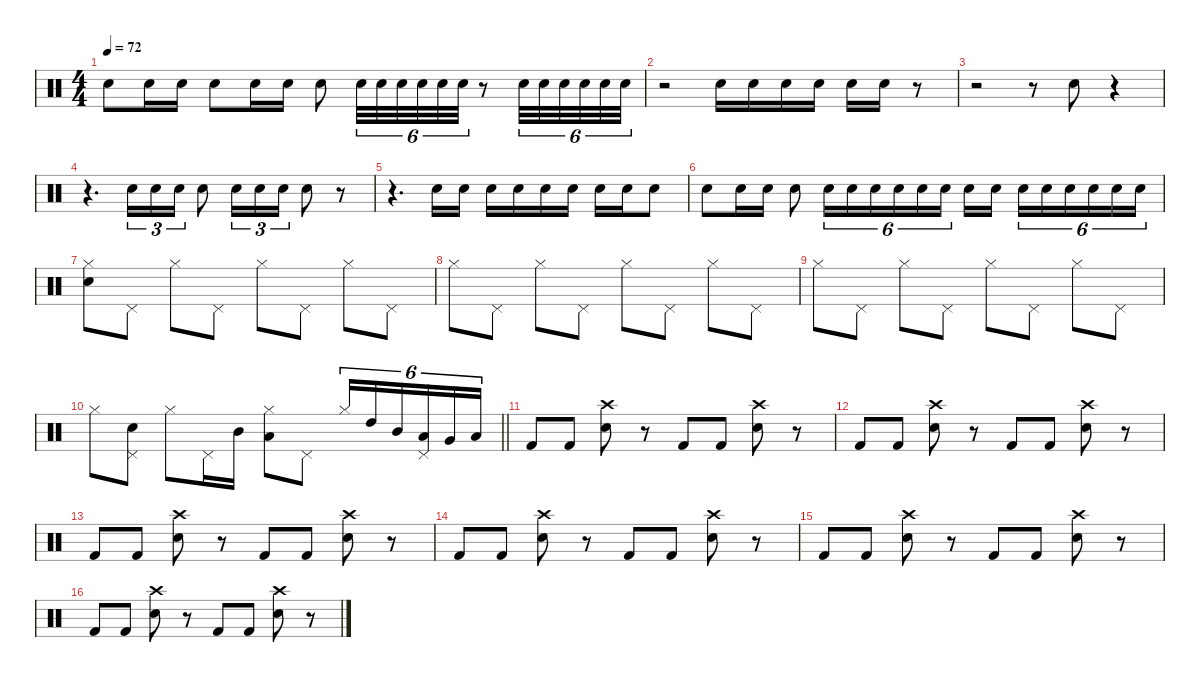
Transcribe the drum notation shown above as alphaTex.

\defaultSystemsLayout 4
\hideDynamics
\bracketExtendMode nobrackets
\singleTrackTrackNamePolicy hidden
\multiTrackTrackNamePolicy hidden
\otherSystemsTrackNameOrientation horizontal
\track ("Drums" "drm.") {instrument percussion}
\staff {score}
\articulation defaults
\ts (4 4)
\tempo 72
\clef neutral
\ks c "Snare (hit) 2".8{dy mp beam Down} "Snare (hit) 2".16{beam Down} "Snare (hit) 2".16{dy pp beam Down} "Snare (hit) 2".8{beam Down} "Snare (hit) 2".16{beam Down} "Snare (hit) 2".16{beam Down} "Snare (hit) 2".8{beam Down} "Snare (hit) 2".32{tu (6 4) dy p beam Down} "Snare (hit) 2".32{tu (6 4) beam Down} "Snare (hit) 2".32{tu (6 4) beam Down} "Snare (hit) 2".32{tu (6 4) beam Down} "Snare (hit) 2".32{tu (6 4) dy mp beam Down} "Snare (hit) 2".32{tu (6 4) beam Down}
r.8{beam Down} "Snare (hit) 2".32{tu (6 4) beam Down} "Snare (hit) 2".32{tu (6 4) beam Down} "Snare (hit) 2".32{tu (6 4) beam Down} "Snare (hit) 2".32{tu (6 4) beam Down} "Snare (hit) 2".32{tu (6 4) dy mf beam Down} "Snare (hit) 2".32{tu (6 4) beam Down} |
r.2{beam Down} "Snare (hit) 2".16{dy mp beam Down} "Snare (hit) 2".16{dy mf beam Down} "Snare (hit) 2".16{beam Down} "Snare (hit) 2".16{beam Down} "Snare (hit) 2".16{beam Down} "Snare (hit) 2".16{dy f beam Down} r.8{beam Down} |
r.2{beam Down} r.8{beam Down} "Snare (hit) 2".8{dy mf beam Down} r.4{beam Down} |
r.4{d beam Down} "Snare (hit) 2".16{tu (3 2) dy mp beam Down} "Snare (hit) 2".16{tu (3 2) beam Down} "Snare (hit) 2".16{tu (3 2) beam Down} "Snare (hit) 2".8{beam Down} "Snare (hit) 2".16{tu (3 2) dy mf beam Down} "Snare (hit) 2".16{tu (3 2) beam Down} "Snare (hit) 2".16{tu (3 2) beam Down} "Snare (hit) 2".8{beam Down} r.8{beam Down} |
r.4{d beam Down} "Snare (hit) 2".16{dy p beam Down} "Snare (hit) 2".16{beam Down} "Snare (hit) 2".16{dy mp beam Down} "Snare (hit) 2".16{beam Down} "Snare (hit) 2".16{beam Down} "Snare (hit) 2".16{dy mf beam Down} "Snare (hit) 2".16{beam Down} "Snare (hit) 2".16{beam Down} "Snare (hit) 2".8{beam Down} |
"Snare (hit) 2".8{dy f beam Down} "Snare (hit) 2".16{dy p beam Down} "Snare (hit) 2".16{dy pp beam Down} "Snare (hit) 2".8{dy p beam Down} "Snare (hit) 2".16{tu (6 4) dy ppp beam Down} "Snare (hit) 2".16{tu (6 4) dy pp beam Down} "Snare (hit) 2".16{tu (6 4) beam Down} "Snare (hit) 2".16{tu (6 4) beam Down} "Snare (hit) 2".16{tu (6 4) dy p beam Down} "Snare (hit) 2".16{tu (6 4) beam Down} "Snare (hit) 2".16{dy mp beam Down} "Snare (hit) 2".16{dy pp beam Down} "Snare (hit) 2".16{tu (6 4) dy p beam Down} "Snare (hit) 2".16{tu (6 4) beam Down} "Snare (hit) 2".16{tu (6 4) beam Down} "Snare (hit) 2".16{tu (6 4) dy mp beam Down} "Snare (hit) 2".16{tu (6 4) beam Down} "Snare (hit) 2".16{tu (6 4) dy mf beam Down} |
("Snare (hit) 2" "Hi-Hat (closed)").8{dy f beam Down} "Pedal Hi-Hat (hit)".8{dy mf beam Down} "Hi-Hat (closed)".8{dy mp beam Down} "Pedal Hi-Hat (hit)".8{dy mf beam Down} "Hi-Hat (closed)".8{dy mp beam Down} "Pedal Hi-Hat (hit)".8{dy mf beam Down} "Hi-Hat (closed)".8{dy mp beam Down} "Pedal Hi-Hat (hit)".8{beam Down} |
"Hi-Hat (closed)".8{dy f beam Down} "Pedal Hi-Hat (hit)".8{dy mf beam Down} "Hi-Hat (closed)".8{beam Down} "Pedal Hi-Hat (hit)".8{beam Down} "Hi-Hat (closed)".8{beam Down} "Pedal Hi-Hat (hit)".8{beam Down} "Hi-Hat (closed)".8{dy mp beam Down} "Pedal Hi-Hat (hit)".8{beam Down} |
"Hi-Hat (closed)".8{dy f beam Down} "Pedal Hi-Hat (hit)".8{dy mf beam Down} "Hi-Hat (closed)".8{dy mp beam Down} "Pedal Hi-Hat (hit)".8{beam Down} "Hi-Hat (closed)".8{beam Down} "Pedal Hi-Hat (hit)".8{dy mf beam Down} "Hi-Hat (closed)".8{beam Down} "Pedal Hi-Hat (hit)".8{beam Down} |
\barLineRight lightlight "Hi-Hat (closed)".8{dy f beam Down}
("Snare (hit) 2" "Pedal Hi-Hat (hit)").8{dy fff beam Down} "Hi-Hat (closed)".8{dy mp beam Down} "Pedal Hi-Hat (hit)".16{dy mf beam Down} "Mid Tom (hit)".16{dy fff beam Down} ("Low Tom (hit)" "Hi-Hat (closed)").8{beam Down} "Pedal Hi-Hat (hit)".8{dy mf beam Down} "Hi-Hat (closed)".16{tu (6 4) dy mp beam Up} "High Tom (hit)".16{tu (6 4) dy mf beam Up} "Mid Tom (hit)".16{tu (6 4) dy f beam Up} ("Low Tom (hit)" "Pedal Hi-Hat (hit)").16{tu (6 4) beam Up} "Very Low Tom (hit)".16{tu (6 4) dy ff beam Up} "Low Floor Tom (hit)".16{tu (6 4) beam Up} |
"Kick (hit) 2".8{dy f beam Up} "Kick (hit) 2".8{dy fff beam Up} ("Snare (hit) 2" "Crash high (hit)").8{beam Down} r.8{beam Down} "Kick (hit) 2".8{beam Up} "Kick (hit) 2".8{beam Up} ("Snare (hit) 2" "Crash high (hit)").8{beam Down} r.8{beam Down} |
"Kick (hit) 2".8{dy f beam Up} "Kick (hit) 2".8{dy fff beam Up} ("Snare (hit) 2" "Crash high (hit)").8{beam Down} r.8{beam Down} "Kick (hit) 2".8{beam Up} "Kick (hit) 2".8{beam Up} ("Snare (hit) 2" "Crash high (hit)").8{beam Down} r.8{beam Down} |
"Kick (hit) 2".8{dy f beam Up} "Kick (hit) 2".8{dy fff beam Up} ("Snare (hit) 2" "Crash high (hit)").8{beam Down} r.8{beam Down} "Kick (hit) 2".8{beam Up} "Kick (hit) 2".8{beam Up} ("Snare (hit) 2" "Crash high (hit)").8{beam Down} r.8{beam Down} |
"Kick (hit) 2".8{dy f beam Up} "Kick (hit) 2".8{dy fff beam Up} ("Snare (hit) 2" "Crash high (hit)").8{beam Down} r.8{beam Down} "Kick (hit) 2".8{beam Up} "Kick (hit) 2".8{beam Up} ("Snare (hit) 2" "Crash high (hit)").8{beam Down} r.8{beam Down} |
"Kick (hit) 2".8{dy f beam Up} "Kick (hit) 2".8{dy fff beam Up} ("Snare (hit) 2" "Crash high (hit)").8{beam Down} r.8{beam Down} "Kick (hit) 2".8{beam Up} "Kick (hit) 2".8{beam Up} ("Snare (hit) 2" "Crash high (hit)").8{beam Down} r.8{beam Down} |
"Kick (hit) 2".8{dy f beam Up} "Kick (hit) 2".8{dy fff beam Up} ("Snare (hit) 2" "Crash high (hit)").8{beam Down} r.8{beam Down} "Kick (hit) 2".8{beam Up} "Kick (hit) 2".8{beam Up} ("Snare (hit) 2" "Crash high (hit)").8{beam Down} r.8{beam Down}
